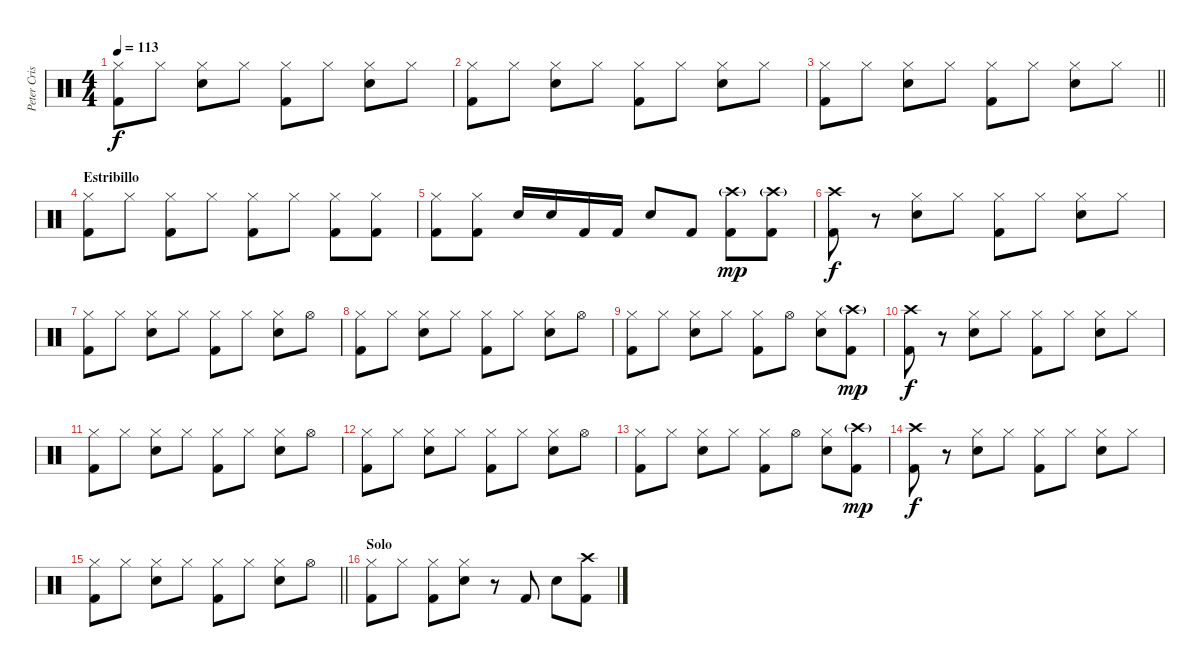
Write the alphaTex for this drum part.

\track ("Peter Criss" "Peter Cris") {instrument percussion}
\staff {score}
\articulation defaults
\ts (4 4)
\tempo 113
\clef neutral
\ks c
("Hi-Hat (closed)" "Kick (hit) 2").8{dy f} "Hi-Hat (closed)".8 ("Hi-Hat (closed)" "Electric Snare (hit)").8 "Hi-Hat (closed)".8 ("Hi-Hat (closed)" "Kick (hit) 2").8 "Hi-Hat (closed)".8 ("Hi-Hat (closed)" "Electric Snare (hit)").8 "Hi-Hat (closed)".8 |
("Hi-Hat (closed)" "Kick (hit) 2").8 "Hi-Hat (closed)".8 ("Hi-Hat (closed)" "Electric Snare (hit)").8 "Hi-Hat (closed)".8 ("Hi-Hat (closed)" "Kick (hit) 2").8 "Hi-Hat (closed)".8 ("Hi-Hat (closed)" "Electric Snare (hit)").8 "Hi-Hat (closed)".8 |
\barLineRight lightlight
("Hi-Hat (closed)" "Kick (hit) 2").8 "Hi-Hat (closed)".8 ("Hi-Hat (closed)" "Electric Snare (hit)").8 "Hi-Hat (closed)".8 ("Hi-Hat (closed)" "Kick (hit) 2").8 "Hi-Hat (closed)".8 ("Hi-Hat (closed)" "Electric Snare (hit)").8 "Hi-Hat (closed)".8 |
\section ("" "Estribillo")
("Hi-Hat (closed)" "Kick (hit) 2").8 "Hi-Hat (closed)".8 ("Hi-Hat (closed)" "Kick (hit) 2").8 "Hi-Hat (closed)".8 ("Hi-Hat (closed)" "Kick (hit) 2").8 "Hi-Hat (closed)".8 ("Hi-Hat (closed)" "Kick (hit) 2").8 ("Hi-Hat (closed)" "Kick (hit) 2").8 |
("Hi-Hat (closed)" "Kick (hit) 2").8 ("Hi-Hat (closed)" "Kick (hit) 2").8 "Electric Snare (hit)".16 "Electric Snare (hit)".16 "Kick (hit) 2".16 "Kick (hit) 2".16 "Electric Snare (hit)".8 "Kick (hit) 2".8 ("Crash high (hit)"{g} "Kick (hit) 2").8{dy mp} ("Crash high (hit)"{g} "Kick (hit) 2").8 |
("Crash high (hit)" "Kick (hit) 2").8{dy f} r.8 ("Hi-Hat (closed)" "Electric Snare (hit)").8 "Hi-Hat (closed)".8 ("Hi-Hat (closed)" "Kick (hit) 2").8 "Hi-Hat (closed)".8 ("Hi-Hat (closed)" "Electric Snare (hit)").8 "Hi-Hat (closed)".8 |
("Hi-Hat (closed)" "Kick (hit) 2").8 "Hi-Hat (closed)".8 ("Hi-Hat (closed)" "Electric Snare (hit)").8 "Hi-Hat (closed)".8 ("Hi-Hat (closed)" "Kick (hit) 2").8 "Hi-Hat (closed)".8 ("Hi-Hat (closed)" "Electric Snare (hit)").8 "Hi-Hat (open)".8 |
("Hi-Hat (closed)" "Kick (hit) 2").8 "Hi-Hat (closed)".8 ("Hi-Hat (closed)" "Electric Snare (hit)").8 "Hi-Hat (closed)".8 ("Hi-Hat (closed)" "Kick (hit) 2").8 "Hi-Hat (closed)".8 ("Hi-Hat (closed)" "Electric Snare (hit)").8 "Hi-Hat (open)".8 |
("Hi-Hat (closed)" "Kick (hit) 2").8 "Hi-Hat (closed)".8 ("Hi-Hat (closed)" "Electric Snare (hit)").8 "Hi-Hat (closed)".8 ("Hi-Hat (closed)" "Kick (hit) 2").8 "Hi-Hat (open)".8 ("Hi-Hat (closed)" "Electric Snare (hit)").8 ("Crash high (hit)"{g} "Kick (hit) 2").8{dy mp} |
("Crash high (hit)" "Kick (hit) 2").8{dy f} r.8 ("Hi-Hat (closed)" "Electric Snare (hit)").8 "Hi-Hat (closed)".8 ("Hi-Hat (closed)" "Kick (hit) 2").8 "Hi-Hat (closed)".8 ("Hi-Hat (closed)" "Electric Snare (hit)").8 "Hi-Hat (closed)".8 |
("Hi-Hat (closed)" "Kick (hit) 2").8 "Hi-Hat (closed)".8 ("Hi-Hat (closed)" "Electric Snare (hit)").8 "Hi-Hat (closed)".8 ("Hi-Hat (closed)" "Kick (hit) 2").8 "Hi-Hat (closed)".8 ("Hi-Hat (closed)" "Electric Snare (hit)").8 "Hi-Hat (open)".8 |
("Hi-Hat (closed)" "Kick (hit) 2").8 "Hi-Hat (closed)".8 ("Hi-Hat (closed)" "Electric Snare (hit)").8 "Hi-Hat (closed)".8 ("Hi-Hat (closed)" "Kick (hit) 2").8 "Hi-Hat (closed)".8 ("Hi-Hat (closed)" "Electric Snare (hit)").8 "Hi-Hat (open)".8 |
("Hi-Hat (closed)" "Kick (hit) 2").8 "Hi-Hat (closed)".8 ("Hi-Hat (closed)" "Electric Snare (hit)").8 "Hi-Hat (closed)".8 ("Hi-Hat (closed)" "Kick (hit) 2").8 "Hi-Hat (open)".8 ("Hi-Hat (closed)" "Electric Snare (hit)").8 ("Crash high (hit)"{g} "Kick (hit) 2").8{dy mp} |
("Crash high (hit)" "Kick (hit) 2").8{dy f} r.8 ("Hi-Hat (closed)" "Electric Snare (hit)").8 "Hi-Hat (closed)".8 ("Hi-Hat (closed)" "Kick (hit) 2").8 "Hi-Hat (closed)".8 ("Hi-Hat (closed)" "Electric Snare (hit)").8 "Hi-Hat (closed)".8 |
\barLineRight lightlight
("Hi-Hat (closed)" "Kick (hit) 2").8 "Hi-Hat (closed)".8 ("Hi-Hat (closed)" "Electric Snare (hit)").8 "Hi-Hat (closed)".8 ("Hi-Hat (closed)" "Kick (hit) 2").8 "Hi-Hat (closed)".8 ("Hi-Hat (closed)" "Electric Snare (hit)").8 "Hi-Hat (open)".8 |
\section ("" "Solo")
("Hi-Hat (closed)" "Kick (hit) 2").8 "Hi-Hat (closed)".8 ("Hi-Hat (closed)" "Kick (hit) 2").8 ("Hi-Hat (closed)" "Electric Snare (hit)").8 r.8 "Kick (hit) 2".8 "Electric Snare (hit)".8 ("Crash high (hit)" "Kick (hit) 2").8
